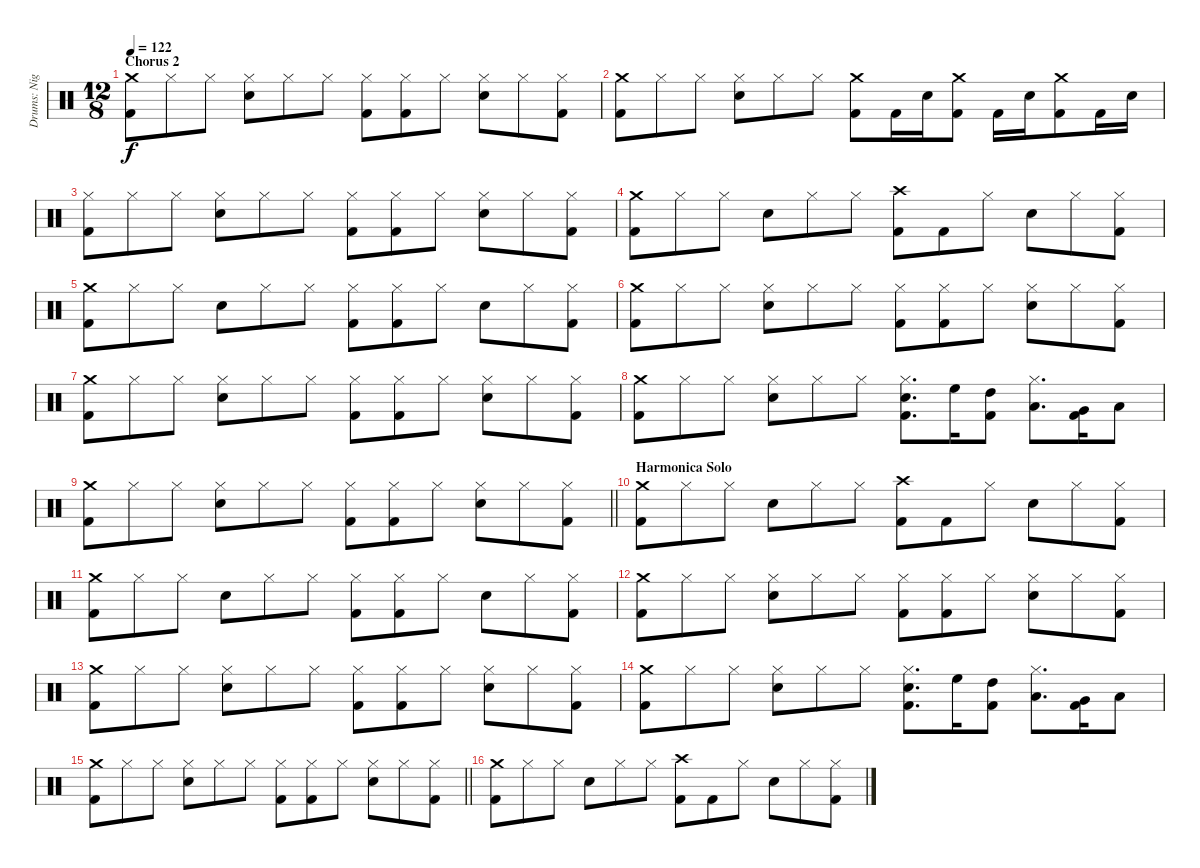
\track ("Drums: Nigel Ollson" "Drums: Nig") {instrument percussion}
\staff {score}
\articulation defaults
\ts (12 8)
\section ("" "Chorus 2")
\tempo 122
\clef neutral
\ks c
("Crash medium (hit)" "Kick (hit) 2").8{dy f} "Hi-Hat (closed)".8 "Hi-Hat (closed)".8 ("Hi-Hat (closed)" "Snare (hit) 2").8 "Hi-Hat (closed)".8 "Hi-Hat (closed)".8 ("Hi-Hat (closed)" "Kick (hit) 2").8 ("Hi-Hat (closed)" "Kick (hit) 2").8 "Hi-Hat (closed)".8 ("Hi-Hat (closed)" "Snare (hit) 2").8 "Hi-Hat (closed)".8 ("Hi-Hat (closed)" "Kick (hit) 2").8 |
("Crash medium (hit)" "Kick (hit) 2").8 "Hi-Hat (closed)".8 "Hi-Hat (closed)".8 ("Hi-Hat (closed)" "Snare (hit) 2").8 "Hi-Hat (closed)".8 "Hi-Hat (closed)".8 ("Crash medium (hit)" "Kick (hit) 2").8 "Kick (hit) 2".16 "Snare (hit) 2".16 ("Crash medium (hit)" "Kick (hit) 2").8 "Kick (hit) 2".16 "Snare (hit) 2".16 ("Crash medium (hit)" "Kick (hit) 2").8 "Kick (hit) 2".16 "Snare (hit) 2".16 |
("Hi-Hat (closed)" "Kick (hit) 2").8 "Hi-Hat (closed)".8 "Hi-Hat (closed)".8 ("Hi-Hat (closed)" "Snare (hit) 2").8 "Hi-Hat (closed)".8 "Hi-Hat (closed)".8 ("Hi-Hat (closed)" "Kick (hit) 2").8 ("Hi-Hat (closed)" "Kick (hit) 2").8 "Hi-Hat (closed)".8 ("Hi-Hat (closed)" "Snare (hit) 2").8 "Hi-Hat (closed)".8 ("Hi-Hat (closed)" "Kick (hit) 2").8 |
("Crash medium (hit)" "Kick (hit) 2").8 "Hi-Hat (closed)".8 "Hi-Hat (closed)".8 "Snare (hit) 2".8 "Hi-Hat (closed)".8 "Hi-Hat (closed)".8 ("Crash high (hit)" "Kick (hit) 2").8 "Kick (hit) 2".8 "Hi-Hat (closed)".8 "Snare (hit) 2".8 "Hi-Hat (closed)".8 ("Hi-Hat (closed)" "Kick (hit) 2").8 |
("Crash medium (hit)" "Kick (hit) 2").8 "Hi-Hat (closed)".8 "Hi-Hat (closed)".8 "Snare (hit) 2".8 "Hi-Hat (closed)".8 "Hi-Hat (closed)".8 ("Hi-Hat (closed)" "Kick (hit) 2").8 ("Hi-Hat (closed)" "Kick (hit) 2").8 "Hi-Hat (closed)".8 "Snare (hit) 2".8 "Hi-Hat (closed)".8 ("Hi-Hat (closed)" "Kick (hit) 2").8 |
("Crash medium (hit)" "Kick (hit) 2").8 "Hi-Hat (closed)".8 "Hi-Hat (closed)".8 ("Hi-Hat (closed)" "Snare (hit) 2").8 "Hi-Hat (closed)".8 "Hi-Hat (closed)".8 ("Hi-Hat (closed)" "Kick (hit) 2").8 ("Hi-Hat (closed)" "Kick (hit) 2").8 "Hi-Hat (closed)".8 ("Hi-Hat (closed)" "Snare (hit) 2").8 "Hi-Hat (closed)".8 ("Hi-Hat (closed)" "Kick (hit) 2").8 |
("Crash medium (hit)" "Kick (hit) 2").8 "Hi-Hat (closed)".8 "Hi-Hat (closed)".8 ("Hi-Hat (closed)" "Snare (hit) 2").8 "Hi-Hat (closed)".8 "Hi-Hat (closed)".8 ("Hi-Hat (closed)" "Kick (hit) 2").8 ("Hi-Hat (closed)" "Kick (hit) 2").8 "Hi-Hat (closed)".8 ("Hi-Hat (closed)" "Snare (hit) 2").8 "Hi-Hat (closed)".8 ("Hi-Hat (closed)" "Kick (hit) 2").8 |
("Crash medium (hit)" "Kick (hit) 2").8 "Hi-Hat (closed)".8 "Hi-Hat (closed)".8 ("Hi-Hat (closed)" "Snare (hit) 2").8 "Hi-Hat (closed)".8 "Hi-Hat (closed)".8 ("Hi-Hat (closed)" "Snare (hit) 2" "Kick (hit) 2").8{d} "High Floor Tom (hit)".16 ("High Tom (hit)" "Kick (hit) 2").8 ("Hi-Hat (closed)" "Low Tom (hit)").8{d} ("Very Low Tom (hit)" "Kick (hit) 2").16 "Low Floor Tom (hit)".8 |
\barLineRight lightlight
("Crash medium (hit)" "Kick (hit) 2").8 "Hi-Hat (closed)".8 "Hi-Hat (closed)".8 ("Hi-Hat (closed)" "Snare (hit) 2").8 "Hi-Hat (closed)".8 "Hi-Hat (closed)".8 ("Hi-Hat (closed)" "Kick (hit) 2").8 ("Hi-Hat (closed)" "Kick (hit) 2").8 "Hi-Hat (closed)".8 ("Hi-Hat (closed)" "Snare (hit) 2").8 "Hi-Hat (closed)".8 ("Hi-Hat (closed)" "Kick (hit) 2").8 |
\section ("" "Harmonica Solo")
("Crash medium (hit)" "Kick (hit) 2").8 "Hi-Hat (closed)".8 "Hi-Hat (closed)".8 "Snare (hit) 2".8 "Hi-Hat (closed)".8 "Hi-Hat (closed)".8 ("Crash high (hit)" "Kick (hit) 2").8 "Kick (hit) 2".8 "Hi-Hat (closed)".8 "Snare (hit) 2".8 "Hi-Hat (closed)".8 ("Hi-Hat (closed)" "Kick (hit) 2").8 |
("Crash medium (hit)" "Kick (hit) 2").8 "Hi-Hat (closed)".8 "Hi-Hat (closed)".8 "Snare (hit) 2".8 "Hi-Hat (closed)".8 "Hi-Hat (closed)".8 ("Hi-Hat (closed)" "Kick (hit) 2").8 ("Hi-Hat (closed)" "Kick (hit) 2").8 "Hi-Hat (closed)".8 "Snare (hit) 2".8 "Hi-Hat (closed)".8 ("Hi-Hat (closed)" "Kick (hit) 2").8 |
("Crash medium (hit)" "Kick (hit) 2").8 "Hi-Hat (closed)".8 "Hi-Hat (closed)".8 ("Hi-Hat (closed)" "Snare (hit) 2").8 "Hi-Hat (closed)".8 "Hi-Hat (closed)".8 ("Hi-Hat (closed)" "Kick (hit) 2").8 ("Hi-Hat (closed)" "Kick (hit) 2").8 "Hi-Hat (closed)".8 ("Hi-Hat (closed)" "Snare (hit) 2").8 "Hi-Hat (closed)".8 ("Hi-Hat (closed)" "Kick (hit) 2").8 |
("Crash medium (hit)" "Kick (hit) 2").8 "Hi-Hat (closed)".8 "Hi-Hat (closed)".8 ("Hi-Hat (closed)" "Snare (hit) 2").8 "Hi-Hat (closed)".8 "Hi-Hat (closed)".8 ("Hi-Hat (closed)" "Kick (hit) 2").8 ("Hi-Hat (closed)" "Kick (hit) 2").8 "Hi-Hat (closed)".8 ("Hi-Hat (closed)" "Snare (hit) 2").8 "Hi-Hat (closed)".8 ("Hi-Hat (closed)" "Kick (hit) 2").8 |
("Crash medium (hit)" "Kick (hit) 2").8 "Hi-Hat (closed)".8 "Hi-Hat (closed)".8 ("Hi-Hat (closed)" "Snare (hit) 2").8 "Hi-Hat (closed)".8 "Hi-Hat (closed)".8 ("Hi-Hat (closed)" "Snare (hit) 2" "Kick (hit) 2").8{d} "High Floor Tom (hit)".16 ("High Tom (hit)" "Kick (hit) 2").8 ("Hi-Hat (closed)" "Low Tom (hit)").8{d} ("Very Low Tom (hit)" "Kick (hit) 2").16 "Low Floor Tom (hit)".8 |
\barLineRight lightlight
("Crash medium (hit)" "Kick (hit) 2").8 "Hi-Hat (closed)".8 "Hi-Hat (closed)".8 ("Hi-Hat (closed)" "Snare (hit) 2").8 "Hi-Hat (closed)".8 "Hi-Hat (closed)".8 ("Hi-Hat (closed)" "Kick (hit) 2").8 ("Hi-Hat (closed)" "Kick (hit) 2").8 "Hi-Hat (closed)".8 ("Hi-Hat (closed)" "Snare (hit) 2").8 "Hi-Hat (closed)".8 ("Hi-Hat (closed)" "Kick (hit) 2").8 |
("Crash medium (hit)" "Kick (hit) 2").8 "Hi-Hat (closed)".8 "Hi-Hat (closed)".8 "Snare (hit) 2".8 "Hi-Hat (closed)".8 "Hi-Hat (closed)".8 ("Crash high (hit)" "Kick (hit) 2").8 "Kick (hit) 2".8 "Hi-Hat (closed)".8 "Snare (hit) 2".8 "Hi-Hat (closed)".8 ("Hi-Hat (closed)" "Kick (hit) 2").8
